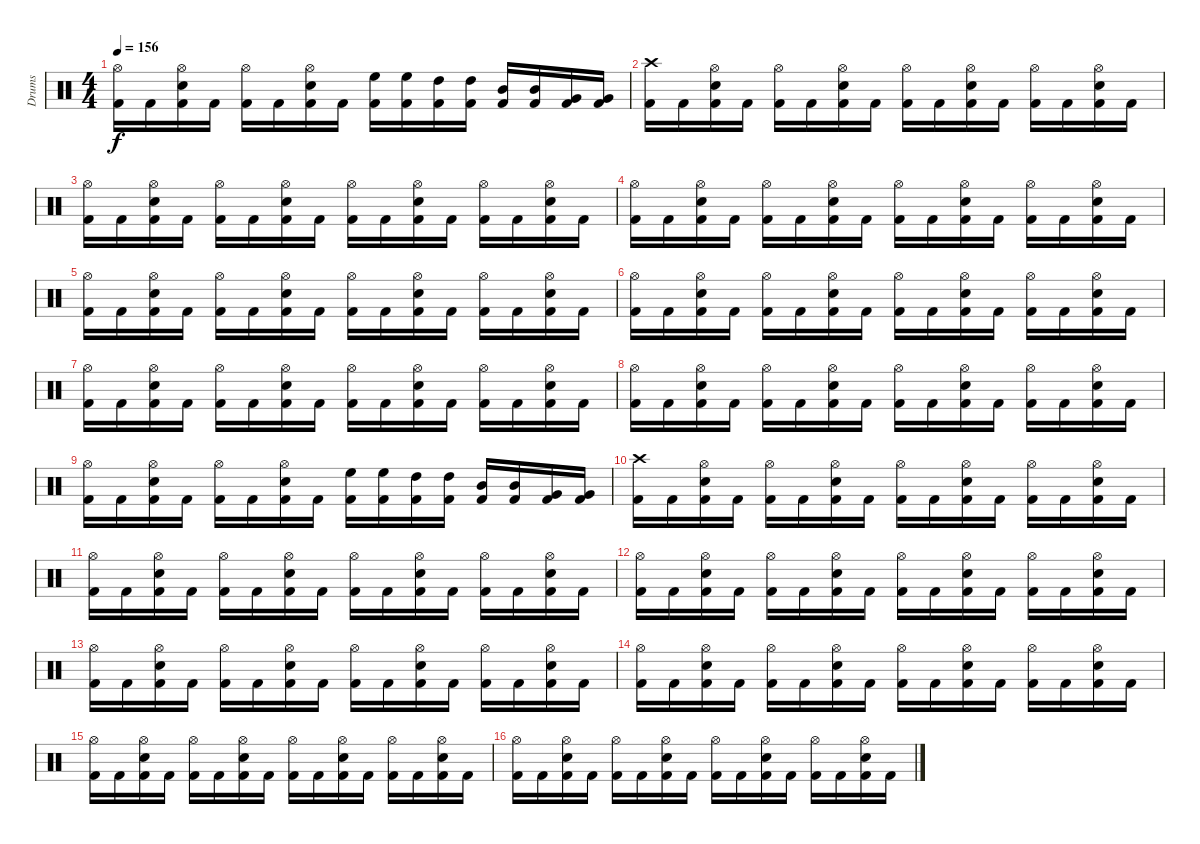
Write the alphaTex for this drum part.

\track ("Drums" "Drums") {instrument percussion}
\staff {score}
\articulation defaults
\ts (4 4)
\tempo 156
\clef neutral
\ks c
("Kick (hit) 2" "Hi-Hat (open)").16{dy f} "Kick (hit) 2".16 ("Kick (hit) 2" "Snare (hit) 2" "Hi-Hat (open)").16 "Kick (hit) 2".16 ("Kick (hit) 2" "Hi-Hat (open)").16 "Kick (hit) 2".16 ("Kick (hit) 2" "Snare (hit) 2" "Hi-Hat (open)").16 "Kick (hit) 2".16 ("Kick (hit) 2" "High Floor Tom (hit)").16 ("Kick (hit) 2" "High Floor Tom (hit)").16 ("Kick (hit) 2" "High Tom (hit)").16 ("Kick (hit) 2" "High Tom (hit)").16 ("Kick (hit) 2" "Mid Tom (hit)").16 ("Kick (hit) 2" "Mid Tom (hit)").16 ("Kick (hit) 2" "Very Low Tom (hit)").16 ("Kick (hit) 2" "Very Low Tom (hit)").16 |
("Kick (hit) 2" "Crash high (hit)").16 "Kick (hit) 2".16 ("Kick (hit) 2" "Snare (hit) 2" "Hi-Hat (open)").16 "Kick (hit) 2".16 ("Kick (hit) 2" "Hi-Hat (open)").16 "Kick (hit) 2".16 ("Kick (hit) 2" "Snare (hit) 2" "Hi-Hat (open)").16 "Kick (hit) 2".16 ("Kick (hit) 2" "Hi-Hat (open)").16 "Kick (hit) 2".16 ("Kick (hit) 2" "Snare (hit) 2" "Hi-Hat (open)").16 "Kick (hit) 2".16 ("Kick (hit) 2" "Hi-Hat (open)").16 "Kick (hit) 2".16 ("Kick (hit) 2" "Snare (hit) 2" "Hi-Hat (open)").16 "Kick (hit) 2".16 |
("Kick (hit) 2" "Hi-Hat (open)").16 "Kick (hit) 2".16 ("Kick (hit) 2" "Snare (hit) 2" "Hi-Hat (open)").16 "Kick (hit) 2".16 ("Kick (hit) 2" "Hi-Hat (open)").16 "Kick (hit) 2".16 ("Kick (hit) 2" "Snare (hit) 2" "Hi-Hat (open)").16 "Kick (hit) 2".16 ("Kick (hit) 2" "Hi-Hat (open)").16 "Kick (hit) 2".16 ("Kick (hit) 2" "Snare (hit) 2" "Hi-Hat (open)").16 "Kick (hit) 2".16 ("Kick (hit) 2" "Hi-Hat (open)").16 "Kick (hit) 2".16 ("Kick (hit) 2" "Snare (hit) 2" "Hi-Hat (open)").16 "Kick (hit) 2".16 |
("Kick (hit) 2" "Hi-Hat (open)").16 "Kick (hit) 2".16 ("Kick (hit) 2" "Snare (hit) 2" "Hi-Hat (open)").16 "Kick (hit) 2".16 ("Kick (hit) 2" "Hi-Hat (open)").16 "Kick (hit) 2".16 ("Kick (hit) 2" "Snare (hit) 2" "Hi-Hat (open)").16 "Kick (hit) 2".16 ("Kick (hit) 2" "Hi-Hat (open)").16 "Kick (hit) 2".16 ("Kick (hit) 2" "Snare (hit) 2" "Hi-Hat (open)").16 "Kick (hit) 2".16 ("Kick (hit) 2" "Hi-Hat (open)").16 "Kick (hit) 2".16 ("Kick (hit) 2" "Snare (hit) 2" "Hi-Hat (open)").16 "Kick (hit) 2".16 |
("Kick (hit) 2" "Hi-Hat (open)").16 "Kick (hit) 2".16 ("Kick (hit) 2" "Snare (hit) 2" "Hi-Hat (open)").16 "Kick (hit) 2".16 ("Kick (hit) 2" "Hi-Hat (open)").16 "Kick (hit) 2".16 ("Kick (hit) 2" "Snare (hit) 2" "Hi-Hat (open)").16 "Kick (hit) 2".16 ("Kick (hit) 2" "Hi-Hat (open)").16 "Kick (hit) 2".16 ("Kick (hit) 2" "Snare (hit) 2" "Hi-Hat (open)").16 "Kick (hit) 2".16 ("Kick (hit) 2" "Hi-Hat (open)").16 "Kick (hit) 2".16 ("Kick (hit) 2" "Snare (hit) 2" "Hi-Hat (open)").16 "Kick (hit) 2".16 |
("Kick (hit) 2" "Hi-Hat (open)").16 "Kick (hit) 2".16 ("Kick (hit) 2" "Snare (hit) 2" "Hi-Hat (open)").16 "Kick (hit) 2".16 ("Kick (hit) 2" "Hi-Hat (open)").16 "Kick (hit) 2".16 ("Kick (hit) 2" "Snare (hit) 2" "Hi-Hat (open)").16 "Kick (hit) 2".16 ("Kick (hit) 2" "Hi-Hat (open)").16 "Kick (hit) 2".16 ("Kick (hit) 2" "Snare (hit) 2" "Hi-Hat (open)").16 "Kick (hit) 2".16 ("Kick (hit) 2" "Hi-Hat (open)").16 "Kick (hit) 2".16 ("Kick (hit) 2" "Snare (hit) 2" "Hi-Hat (open)").16 "Kick (hit) 2".16 |
("Kick (hit) 2" "Hi-Hat (open)").16 "Kick (hit) 2".16 ("Kick (hit) 2" "Snare (hit) 2" "Hi-Hat (open)").16 "Kick (hit) 2".16 ("Kick (hit) 2" "Hi-Hat (open)").16 "Kick (hit) 2".16 ("Kick (hit) 2" "Snare (hit) 2" "Hi-Hat (open)").16 "Kick (hit) 2".16 ("Kick (hit) 2" "Hi-Hat (open)").16 "Kick (hit) 2".16 ("Kick (hit) 2" "Snare (hit) 2" "Hi-Hat (open)").16 "Kick (hit) 2".16 ("Kick (hit) 2" "Hi-Hat (open)").16 "Kick (hit) 2".16 ("Kick (hit) 2" "Snare (hit) 2" "Hi-Hat (open)").16 "Kick (hit) 2".16 |
("Kick (hit) 2" "Hi-Hat (open)").16 "Kick (hit) 2".16 ("Kick (hit) 2" "Snare (hit) 2" "Hi-Hat (open)").16 "Kick (hit) 2".16 ("Kick (hit) 2" "Hi-Hat (open)").16 "Kick (hit) 2".16 ("Kick (hit) 2" "Snare (hit) 2" "Hi-Hat (open)").16 "Kick (hit) 2".16 ("Kick (hit) 2" "Hi-Hat (open)").16 "Kick (hit) 2".16 ("Kick (hit) 2" "Snare (hit) 2" "Hi-Hat (open)").16 "Kick (hit) 2".16 ("Kick (hit) 2" "Hi-Hat (open)").16 "Kick (hit) 2".16 ("Kick (hit) 2" "Snare (hit) 2" "Hi-Hat (open)").16 "Kick (hit) 2".16 |
("Kick (hit) 2" "Hi-Hat (open)").16 "Kick (hit) 2".16 ("Kick (hit) 2" "Snare (hit) 2" "Hi-Hat (open)").16 "Kick (hit) 2".16 ("Kick (hit) 2" "Hi-Hat (open)").16 "Kick (hit) 2".16 ("Kick (hit) 2" "Snare (hit) 2" "Hi-Hat (open)").16 "Kick (hit) 2".16 ("Kick (hit) 2" "High Floor Tom (hit)").16 ("Kick (hit) 2" "High Floor Tom (hit)").16 ("Kick (hit) 2" "High Tom (hit)").16 ("Kick (hit) 2" "High Tom (hit)").16 ("Kick (hit) 2" "Mid Tom (hit)").16 ("Kick (hit) 2" "Mid Tom (hit)").16 ("Kick (hit) 2" "Very Low Tom (hit)").16 ("Kick (hit) 2" "Very Low Tom (hit)").16 |
\section ("" "")
("Kick (hit) 2" "Crash high (hit)").16 "Kick (hit) 2".16 ("Kick (hit) 2" "Snare (hit) 2" "Hi-Hat (open)").16 "Kick (hit) 2".16 ("Kick (hit) 2" "Hi-Hat (open)").16 "Kick (hit) 2".16 ("Kick (hit) 2" "Snare (hit) 2" "Hi-Hat (open)").16 "Kick (hit) 2".16 ("Kick (hit) 2" "Hi-Hat (open)").16 "Kick (hit) 2".16 ("Kick (hit) 2" "Snare (hit) 2" "Hi-Hat (open)").16 "Kick (hit) 2".16 ("Kick (hit) 2" "Hi-Hat (open)").16 "Kick (hit) 2".16 ("Kick (hit) 2" "Snare (hit) 2" "Hi-Hat (open)").16 "Kick (hit) 2".16 |
("Kick (hit) 2" "Hi-Hat (open)").16 "Kick (hit) 2".16 ("Kick (hit) 2" "Snare (hit) 2" "Hi-Hat (open)").16 "Kick (hit) 2".16 ("Kick (hit) 2" "Hi-Hat (open)").16 "Kick (hit) 2".16 ("Kick (hit) 2" "Snare (hit) 2" "Hi-Hat (open)").16 "Kick (hit) 2".16 ("Kick (hit) 2" "Hi-Hat (open)").16 "Kick (hit) 2".16 ("Kick (hit) 2" "Snare (hit) 2" "Hi-Hat (open)").16 "Kick (hit) 2".16 ("Kick (hit) 2" "Hi-Hat (open)").16 "Kick (hit) 2".16 ("Kick (hit) 2" "Snare (hit) 2" "Hi-Hat (open)").16 "Kick (hit) 2".16 |
("Kick (hit) 2" "Hi-Hat (open)").16 "Kick (hit) 2".16 ("Kick (hit) 2" "Snare (hit) 2" "Hi-Hat (open)").16 "Kick (hit) 2".16 ("Kick (hit) 2" "Hi-Hat (open)").16 "Kick (hit) 2".16 ("Kick (hit) 2" "Snare (hit) 2" "Hi-Hat (open)").16 "Kick (hit) 2".16 ("Kick (hit) 2" "Hi-Hat (open)").16 "Kick (hit) 2".16 ("Kick (hit) 2" "Snare (hit) 2" "Hi-Hat (open)").16 "Kick (hit) 2".16 ("Kick (hit) 2" "Hi-Hat (open)").16 "Kick (hit) 2".16 ("Kick (hit) 2" "Snare (hit) 2" "Hi-Hat (open)").16 "Kick (hit) 2".16 |
("Kick (hit) 2" "Hi-Hat (open)").16 "Kick (hit) 2".16 ("Kick (hit) 2" "Snare (hit) 2" "Hi-Hat (open)").16 "Kick (hit) 2".16 ("Kick (hit) 2" "Hi-Hat (open)").16 "Kick (hit) 2".16 ("Kick (hit) 2" "Snare (hit) 2" "Hi-Hat (open)").16 "Kick (hit) 2".16 ("Kick (hit) 2" "Hi-Hat (open)").16 "Kick (hit) 2".16 ("Kick (hit) 2" "Snare (hit) 2" "Hi-Hat (open)").16 "Kick (hit) 2".16 ("Kick (hit) 2" "Hi-Hat (open)").16 "Kick (hit) 2".16 ("Kick (hit) 2" "Snare (hit) 2" "Hi-Hat (open)").16 "Kick (hit) 2".16 |
("Kick (hit) 2" "Hi-Hat (open)").16 "Kick (hit) 2".16 ("Kick (hit) 2" "Snare (hit) 2" "Hi-Hat (open)").16 "Kick (hit) 2".16 ("Kick (hit) 2" "Hi-Hat (open)").16 "Kick (hit) 2".16 ("Kick (hit) 2" "Snare (hit) 2" "Hi-Hat (open)").16 "Kick (hit) 2".16 ("Kick (hit) 2" "Hi-Hat (open)").16 "Kick (hit) 2".16 ("Kick (hit) 2" "Snare (hit) 2" "Hi-Hat (open)").16 "Kick (hit) 2".16 ("Kick (hit) 2" "Hi-Hat (open)").16 "Kick (hit) 2".16 ("Kick (hit) 2" "Snare (hit) 2" "Hi-Hat (open)").16 "Kick (hit) 2".16 |
("Kick (hit) 2" "Hi-Hat (open)").16 "Kick (hit) 2".16 ("Kick (hit) 2" "Snare (hit) 2" "Hi-Hat (open)").16 "Kick (hit) 2".16 ("Kick (hit) 2" "Hi-Hat (open)").16 "Kick (hit) 2".16 ("Kick (hit) 2" "Snare (hit) 2" "Hi-Hat (open)").16 "Kick (hit) 2".16 ("Kick (hit) 2" "Hi-Hat (open)").16 "Kick (hit) 2".16 ("Kick (hit) 2" "Snare (hit) 2" "Hi-Hat (open)").16 "Kick (hit) 2".16 ("Kick (hit) 2" "Hi-Hat (open)").16 "Kick (hit) 2".16 ("Kick (hit) 2" "Snare (hit) 2" "Hi-Hat (open)").16 "Kick (hit) 2".16 |
("Kick (hit) 2" "Hi-Hat (open)").16 "Kick (hit) 2".16 ("Kick (hit) 2" "Snare (hit) 2" "Hi-Hat (open)").16 "Kick (hit) 2".16 ("Kick (hit) 2" "Hi-Hat (open)").16 "Kick (hit) 2".16 ("Kick (hit) 2" "Snare (hit) 2" "Hi-Hat (open)").16 "Kick (hit) 2".16 ("Kick (hit) 2" "Hi-Hat (open)").16 "Kick (hit) 2".16 ("Kick (hit) 2" "Snare (hit) 2" "Hi-Hat (open)").16 "Kick (hit) 2".16 ("Kick (hit) 2" "Hi-Hat (open)").16 "Kick (hit) 2".16 ("Kick (hit) 2" "Snare (hit) 2" "Hi-Hat (open)").16 "Kick (hit) 2".16
